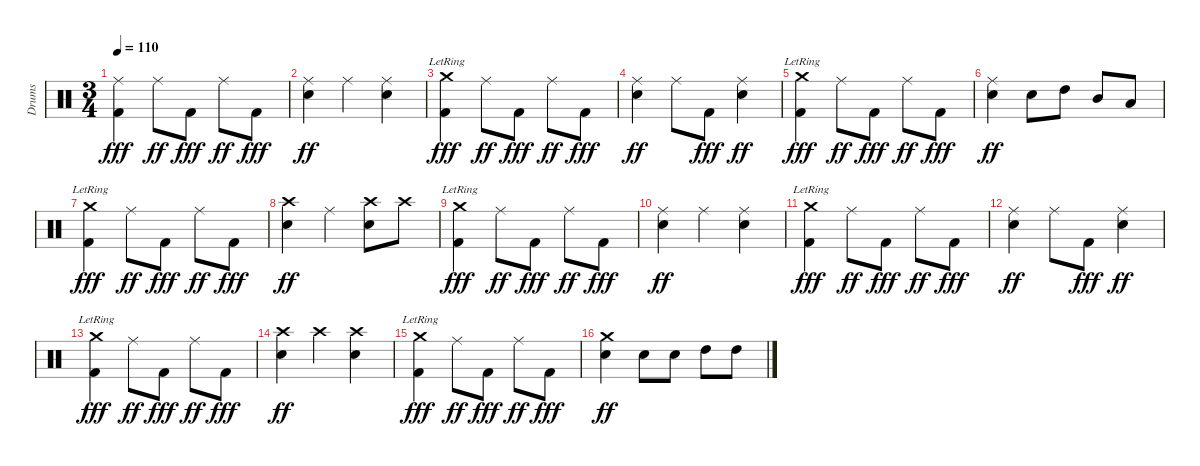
\track ("Drums" "Drums") {instrument percussion}
\staff {score}
\articulation defaults
\ts (3 4)
\tempo 110
\clef neutral
\ks c
("Ride (middle)" "Kick (hit) 2").4{dy fff} "Ride (middle)".8{dy ff} "Kick (hit) 2".8{dy fff} "Ride (middle)".8{dy ff} "Kick (hit) 2".8{dy fff} |
("Ride (middle)" "Snare (hit) 2").4{dy ff} "Ride (middle)".4 ("Ride (middle)" "Snare (hit) 2").4 |
("Crash medium (hit)"{lr} "Kick (hit) 2").4{dy fff} "Ride (middle)".8{dy ff} "Kick (hit) 2".8{dy fff} "Ride (middle)".8{dy ff} "Kick (hit) 2".8{dy fff} |
("Ride (middle)" "Snare (hit) 2").4{dy ff} "Ride (middle)".8 "Kick (hit) 2".8{dy fff} ("Ride (middle)" "Snare (hit) 2").4{dy ff} |
("Crash medium (hit)"{lr} "Kick (hit) 2").4{dy fff} "Ride (middle)".8{dy ff} "Kick (hit) 2".8{dy fff} "Ride (middle)".8{dy ff} "Kick (hit) 2".8{dy fff} |
("Ride (middle)" "Snare (hit) 2").4{dy ff} "Snare (hit) 2".8 "High Tom (hit)".8 "Mid Tom (hit)".8 "Low Tom (hit)".8 |
("Crash medium (hit)"{lr} "Kick (hit) 2").4{dy fff} "Ride (middle)".8{dy ff} "Kick (hit) 2".8{dy fff} "Ride (middle)".8{dy ff} "Kick (hit) 2".8{dy fff} |
("Crash high (hit)" "Snare (hit) 2").4{dy ff} "Ride (middle)".4 ("Crash high (hit)" "Snare (hit) 2").8 "Crash high (hit)".8 |
("Crash medium (hit)"{lr} "Kick (hit) 2").4{dy fff} "Ride (middle)".8{dy ff} "Kick (hit) 2".8{dy fff} "Ride (middle)".8{dy ff} "Kick (hit) 2".8{dy fff} |
("Ride (middle)" "Snare (hit) 2").4{dy ff} "Ride (middle)".4 ("Ride (middle)" "Snare (hit) 2").4 |
("Crash medium (hit)"{lr} "Kick (hit) 2").4{dy fff} "Ride (middle)".8{dy ff} "Kick (hit) 2".8{dy fff} "Ride (middle)".8{dy ff} "Kick (hit) 2".8{dy fff} |
("Ride (middle)" "Snare (hit) 2").4{dy ff} "Ride (middle)".8 "Kick (hit) 2".8{dy fff} ("Ride (middle)" "Snare (hit) 2").4{dy ff} |
("Crash medium (hit)"{lr} "Kick (hit) 2").4{dy fff} "Ride (middle)".8{dy ff} "Kick (hit) 2".8{dy fff} "Ride (middle)".8{dy ff} "Kick (hit) 2".8{dy fff} |
("Crash high (hit)" "Snare (hit) 2").4{dy ff} "Crash high (hit)".4 ("Crash high (hit)" "Snare (hit) 2").4 |
("Crash medium (hit)"{lr} "Kick (hit) 2").4{dy fff} "Ride (middle)".8{dy ff} "Kick (hit) 2".8{dy fff} "Ride (middle)".8{dy ff} "Kick (hit) 2".8{dy fff} |
("Crash medium (hit)" "Snare (hit) 2").4{dy ff} "Snare (hit) 2".8 "Snare (hit) 2".8 "High Tom (hit)".8 "High Tom (hit)".8
